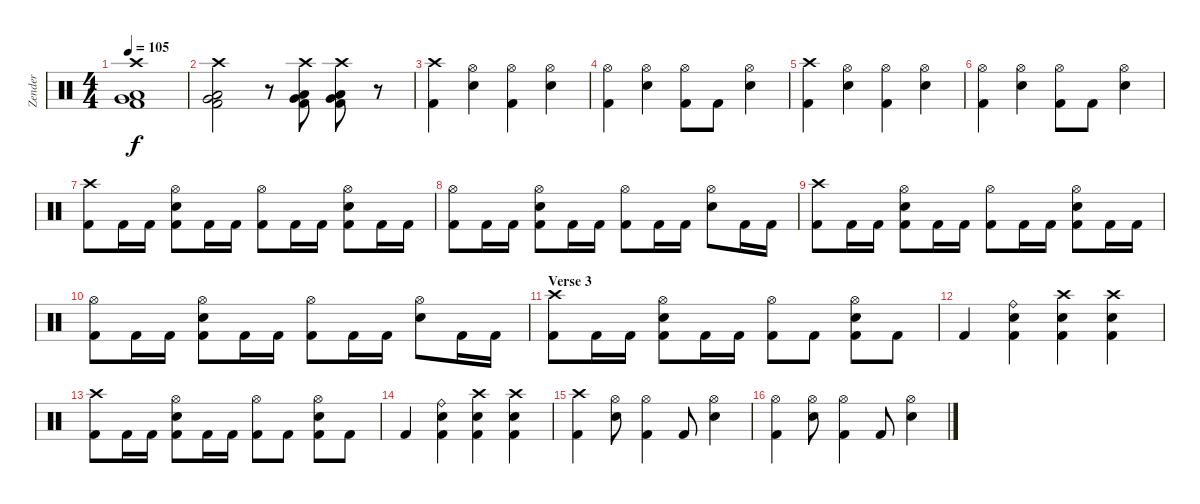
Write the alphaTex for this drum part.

\track ("Zender" "Zender") {instrument percussion}
\staff {score}
\articulation defaults
\ts (4 4)
\tempo 105
\clef neutral
\ks c
("Crash high (hit)" "Low Floor Tom (hit)" "Very Low Tom (hit)" "Kick (hit) 2").1{dy f} |
("Crash high (hit)" "Low Floor Tom (hit)" "Very Low Tom (hit)" "Kick (hit) 2").2 r.8 ("Crash high (hit)" "Low Floor Tom (hit)" "Very Low Tom (hit)" "Kick (hit) 2").8 ("Crash high (hit)" "Low Floor Tom (hit)" "Very Low Tom (hit)" "Kick (hit) 2").8 r.8 |
("Crash high (hit)" "Kick (hit) 2").4 ("Electric Snare (hit)" "Hi-Hat (open)").4 ("Hi-Hat (open)" "Kick (hit) 2").4 ("Electric Snare (hit)" "Hi-Hat (open)").4 |
("Hi-Hat (open)" "Kick (hit) 2").4 ("Electric Snare (hit)" "Hi-Hat (open)").4 ("Hi-Hat (open)" "Kick (hit) 2").8 "Kick (hit) 2".8 ("Electric Snare (hit)" "Hi-Hat (open)").4 |
("Crash high (hit)" "Kick (hit) 2").4 ("Electric Snare (hit)" "Hi-Hat (open)").4 ("Hi-Hat (open)" "Kick (hit) 2").4 ("Electric Snare (hit)" "Hi-Hat (open)").4 |
("Hi-Hat (open)" "Kick (hit) 2").4 ("Electric Snare (hit)" "Hi-Hat (open)").4 ("Hi-Hat (open)" "Kick (hit) 2").8 "Kick (hit) 2".8 ("Electric Snare (hit)" "Hi-Hat (open)").4 |
("Crash high (hit)" "Kick (hit) 2").8 "Kick (hit) 2".16 "Kick (hit) 2".16 ("Electric Snare (hit)" "Hi-Hat (open)" "Kick (hit) 2").8 "Kick (hit) 2".16 "Kick (hit) 2".16 ("Hi-Hat (open)" "Kick (hit) 2").8 "Kick (hit) 2".16 "Kick (hit) 2".16 ("Electric Snare (hit)" "Hi-Hat (open)" "Kick (hit) 2").8 "Kick (hit) 2".16 "Kick (hit) 2".16 |
("Hi-Hat (open)" "Kick (hit) 2").8 "Kick (hit) 2".16 "Kick (hit) 2".16 ("Electric Snare (hit)" "Hi-Hat (open)" "Kick (hit) 2").8 "Kick (hit) 2".16 "Kick (hit) 2".16 ("Hi-Hat (open)" "Kick (hit) 2").8 "Kick (hit) 2".16 "Kick (hit) 2".16 ("Electric Snare (hit)" "Hi-Hat (open)").8 "Kick (hit) 2".16 "Kick (hit) 2".16 |
("Crash high (hit)" "Kick (hit) 2").8 "Kick (hit) 2".16 "Kick (hit) 2".16 ("Electric Snare (hit)" "Hi-Hat (open)" "Kick (hit) 2").8 "Kick (hit) 2".16 "Kick (hit) 2".16 ("Hi-Hat (open)" "Kick (hit) 2").8 "Kick (hit) 2".16 "Kick (hit) 2".16 ("Electric Snare (hit)" "Hi-Hat (open)" "Kick (hit) 2").8 "Kick (hit) 2".16 "Kick (hit) 2".16 |
("Hi-Hat (open)" "Kick (hit) 2").8 "Kick (hit) 2".16 "Kick (hit) 2".16 ("Electric Snare (hit)" "Hi-Hat (open)" "Kick (hit) 2").8 "Kick (hit) 2".16 "Kick (hit) 2".16 ("Hi-Hat (open)" "Kick (hit) 2").8 "Kick (hit) 2".16 "Kick (hit) 2".16 ("Electric Snare (hit)" "Hi-Hat (open)").8 "Kick (hit) 2".16 "Kick (hit) 2".16 |
\section ("" "Verse 3")
("Crash high (hit)" "Kick (hit) 2").8 "Kick (hit) 2".16 "Kick (hit) 2".16 ("Electric Snare (hit)" "Hi-Hat (open)" "Kick (hit) 2").8 "Kick (hit) 2".16 "Kick (hit) 2".16 ("Hi-Hat (open)" "Kick (hit) 2").8 "Kick (hit) 2".8 ("Electric Snare (hit)" "Hi-Hat (open)" "Kick (hit) 2").8 "Kick (hit) 2".8 |
"Kick (hit) 2".4 ("Ride (bell)" "Electric Snare (hit)" "Kick (hit) 2").4 ("Crash high (hit)" "Electric Snare (hit)" "Kick (hit) 2").4 ("Crash high (hit)" "Electric Snare (hit)" "Kick (hit) 2").4 |
("Crash high (hit)" "Kick (hit) 2").8 "Kick (hit) 2".16 "Kick (hit) 2".16 ("Electric Snare (hit)" "Hi-Hat (open)" "Kick (hit) 2").8 "Kick (hit) 2".16 "Kick (hit) 2".16 ("Hi-Hat (open)" "Kick (hit) 2").8 "Kick (hit) 2".8 ("Electric Snare (hit)" "Hi-Hat (open)" "Kick (hit) 2").8 "Kick (hit) 2".8 |
"Kick (hit) 2".4 ("Ride (bell)" "Electric Snare (hit)" "Kick (hit) 2").4 ("Crash high (hit)" "Electric Snare (hit)" "Kick (hit) 2").4 ("Crash high (hit)" "Electric Snare (hit)" "Kick (hit) 2").4 |
("Crash high (hit)" "Kick (hit) 2").4 ("Hi-Hat (open)" "Electric Snare (hit)").8 ("Hi-Hat (open)" "Kick (hit) 2").4 "Kick (hit) 2".8 ("Hi-Hat (open)" "Electric Snare (hit)").4 |
("Hi-Hat (open)" "Kick (hit) 2").4 ("Hi-Hat (open)" "Electric Snare (hit)").8 ("Hi-Hat (open)" "Kick (hit) 2").4 "Kick (hit) 2".8 ("Hi-Hat (open)" "Electric Snare (hit)").4
